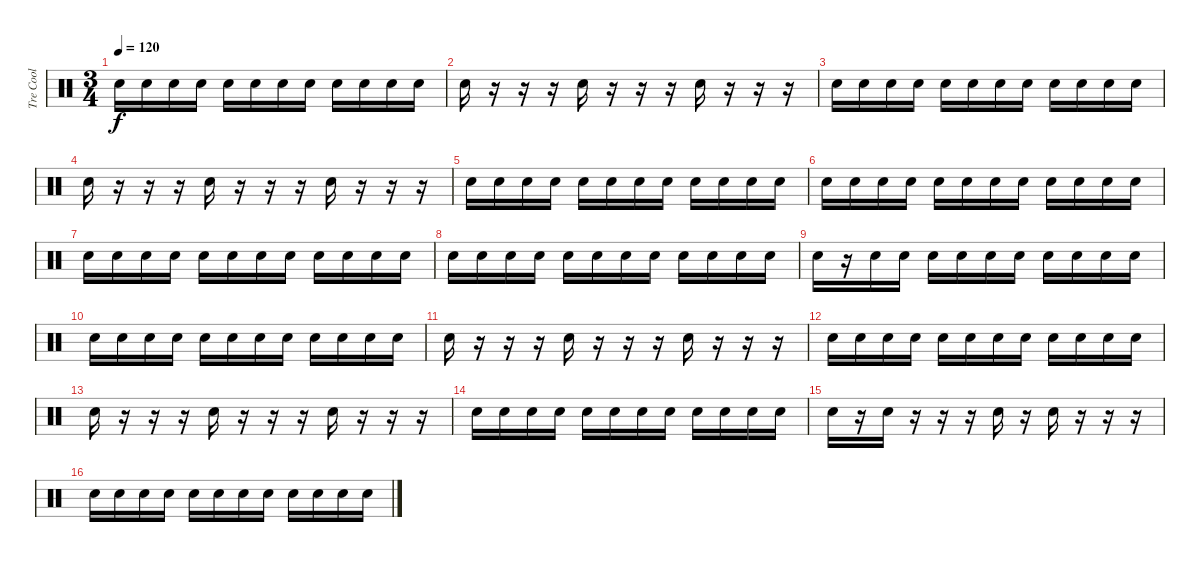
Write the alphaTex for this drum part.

\track ("Tre Cool" "Tre Cool") {instrument percussion}
\staff {score}
\articulation defaults
\ts (3 4)
\tempo 120
\clef neutral
\ks c "Snare (hit) 2".16{dy f} "Snare (hit) 2".16 "Snare (hit) 2".16 "Snare (hit) 2".16 "Snare (hit) 2".16 "Snare (hit) 2".16 "Snare (hit) 2".16 "Snare (hit) 2".16 "Snare (hit) 2".16 "Snare (hit) 2".16 "Snare (hit) 2".16 "Snare (hit) 2".16
|
"Snare (hit) 2".16 r.16 r.16 r.16 "Snare (hit) 2".16 r.16 r.16 r.16 "Snare (hit) 2".16 r.16 r.16 r.16 |
"Snare (hit) 2".16 "Snare (hit) 2".16 "Snare (hit) 2".16 "Snare (hit) 2".16 "Snare (hit) 2".16 "Snare (hit) 2".16 "Snare (hit) 2".16 "Snare (hit) 2".16 "Snare (hit) 2".16 "Snare (hit) 2".16 "Snare (hit) 2".16 "Snare (hit) 2".16 |
"Snare (hit) 2".16 r.16 r.16 r.16 "Snare (hit) 2".16 r.16 r.16 r.16 "Snare (hit) 2".16 r.16 r.16 r.16 |
"Snare (hit) 2".16 "Snare (hit) 2".16 "Snare (hit) 2".16 "Snare (hit) 2".16 "Snare (hit) 2".16 "Snare (hit) 2".16 "Snare (hit) 2".16 "Snare (hit) 2".16 "Snare (hit) 2".16 "Snare (hit) 2".16 "Snare (hit) 2".16 "Snare (hit) 2".16 |
"Snare (hit) 2".16 "Snare (hit) 2".16 "Snare (hit) 2".16 "Snare (hit) 2".16 "Snare (hit) 2".16 "Snare (hit) 2".16 "Snare (hit) 2".16 "Snare (hit) 2".16 "Snare (hit) 2".16 "Snare (hit) 2".16 "Snare (hit) 2".16 "Snare (hit) 2".16 |
"Snare (hit) 2".16 "Snare (hit) 2".16 "Snare (hit) 2".16 "Snare (hit) 2".16 "Snare (hit) 2".16 "Snare (hit) 2".16 "Snare (hit) 2".16 "Snare (hit) 2".16 "Snare (hit) 2".16 "Snare (hit) 2".16 "Snare (hit) 2".16 "Snare (hit) 2".16 |
"Snare (hit) 2".16 "Snare (hit) 2".16 "Snare (hit) 2".16 "Snare (hit) 2".16 "Snare (hit) 2".16 "Snare (hit) 2".16 "Snare (hit) 2".16 "Snare (hit) 2".16 "Snare (hit) 2".16 "Snare (hit) 2".16 "Snare (hit) 2".16 "Snare (hit) 2".16 |
"Snare (hit) 2".16 r.16 "Snare (hit) 2".16 "Snare (hit) 2".16 "Snare (hit) 2".16 "Snare (hit) 2".16 "Snare (hit) 2".16 "Snare (hit) 2".16 "Snare (hit) 2".16 "Snare (hit) 2".16 "Snare (hit) 2".16 "Snare (hit) 2".16 |
"Snare (hit) 2".16 "Snare (hit) 2".16 "Snare (hit) 2".16 "Snare (hit) 2".16 "Snare (hit) 2".16 "Snare (hit) 2".16 "Snare (hit) 2".16 "Snare (hit) 2".16 "Snare (hit) 2".16 "Snare (hit) 2".16 "Snare (hit) 2".16 "Snare (hit) 2".16 |
"Snare (hit) 2".16 r.16 r.16 r.16 "Snare (hit) 2".16 r.16 r.16 r.16 "Snare (hit) 2".16 r.16 r.16 r.16 |
"Snare (hit) 2".16 "Snare (hit) 2".16 "Snare (hit) 2".16 "Snare (hit) 2".16 "Snare (hit) 2".16 "Snare (hit) 2".16 "Snare (hit) 2".16 "Snare (hit) 2".16 "Snare (hit) 2".16 "Snare (hit) 2".16 "Snare (hit) 2".16 "Snare (hit) 2".16 |
"Snare (hit) 2".16 r.16 r.16 r.16 "Snare (hit) 2".16 r.16 r.16 r.16 "Snare (hit) 2".16 r.16 r.16 r.16 |
"Snare (hit) 2".16 "Snare (hit) 2".16 "Snare (hit) 2".16 "Snare (hit) 2".16 "Snare (hit) 2".16 "Snare (hit) 2".16 "Snare (hit) 2".16 "Snare (hit) 2".16 "Snare (hit) 2".16 "Snare (hit) 2".16 "Snare (hit) 2".16 "Snare (hit) 2".16 |
"Snare (hit) 2".16 r.16 "Snare (hit) 2".16 r.16 r.16 r.16 "Snare (hit) 2".16 r.16 "Snare (hit) 2".16 r.16 r.16 r.16 |
"Snare (hit) 2".16 "Snare (hit) 2".16 "Snare (hit) 2".16 "Snare (hit) 2".16 "Snare (hit) 2".16 "Snare (hit) 2".16 "Snare (hit) 2".16 "Snare (hit) 2".16 "Snare (hit) 2".16 "Snare (hit) 2".16 "Snare (hit) 2".16 "Snare (hit) 2".16
